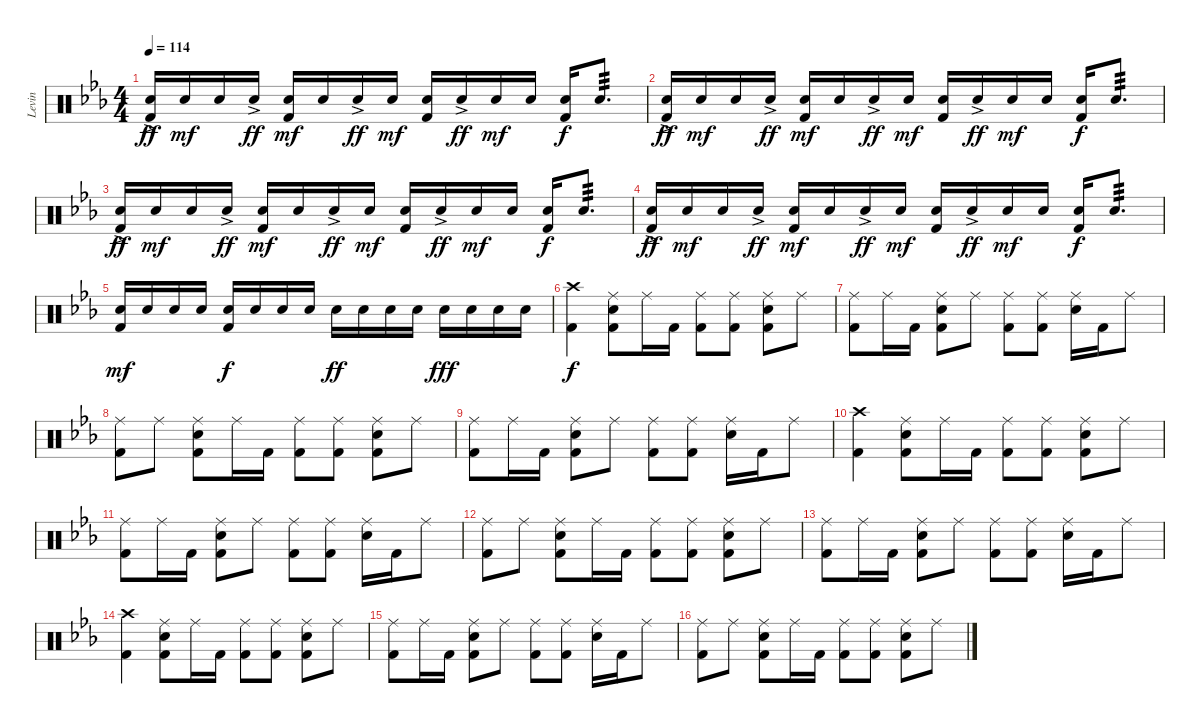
\track ("Levin" "Levin") {instrument percussion}
\staff {score}
\articulation defaults
\ts (4 4)
\tempo 114
\clef neutral
\ks eb
("Electric Snare (hit)"{ac} "Kick (hit) 2").16{dy ff} "Electric Snare (hit)".16{dy mf} "Electric Snare (hit)".16 "Electric Snare (hit)"{ac}.16{dy ff} ("Electric Snare (hit)" "Kick (hit) 2").16{dy mf} "Electric Snare (hit)".16 "Electric Snare (hit)"{ac}.16{dy ff} "Electric Snare (hit)".16{dy mf} ("Electric Snare (hit)" "Kick (hit) 2").16 "Electric Snare (hit)"{ac}.16{dy ff} "Electric Snare (hit)".16{dy mf} "Electric Snare (hit)".16 ("Electric Snare (hit)" "Kick (hit) 2").16{dy f} "Electric Snare (hit)".8{d tp 3} |
("Electric Snare (hit)"{ac} "Kick (hit) 2").16{dy ff} "Electric Snare (hit)".16{dy mf} "Electric Snare (hit)".16 "Electric Snare (hit)"{ac}.16{dy ff} ("Electric Snare (hit)" "Kick (hit) 2").16{dy mf} "Electric Snare (hit)".16 "Electric Snare (hit)"{ac}.16{dy ff} "Electric Snare (hit)".16{dy mf} ("Electric Snare (hit)" "Kick (hit) 2").16 "Electric Snare (hit)"{ac}.16{dy ff} "Electric Snare (hit)".16{dy mf} "Electric Snare (hit)".16 ("Electric Snare (hit)" "Kick (hit) 2").16{dy f} "Electric Snare (hit)".8{d tp 3} |
("Electric Snare (hit)"{ac} "Kick (hit) 2").16{dy ff} "Electric Snare (hit)".16{dy mf} "Electric Snare (hit)".16 "Electric Snare (hit)"{ac}.16{dy ff} ("Electric Snare (hit)" "Kick (hit) 2").16{dy mf} "Electric Snare (hit)".16 "Electric Snare (hit)"{ac}.16{dy ff} "Electric Snare (hit)".16{dy mf} ("Electric Snare (hit)" "Kick (hit) 2").16 "Electric Snare (hit)"{ac}.16{dy ff} "Electric Snare (hit)".16{dy mf} "Electric Snare (hit)".16 ("Electric Snare (hit)" "Kick (hit) 2").16{dy f} "Electric Snare (hit)".8{d tp 3} |
("Electric Snare (hit)"{ac} "Kick (hit) 2").16{dy ff} "Electric Snare (hit)".16{dy mf} "Electric Snare (hit)".16 "Electric Snare (hit)"{ac}.16{dy ff} ("Electric Snare (hit)" "Kick (hit) 2").16{dy mf} "Electric Snare (hit)".16 "Electric Snare (hit)"{ac}.16{dy ff} "Electric Snare (hit)".16{dy mf} ("Electric Snare (hit)" "Kick (hit) 2").16 "Electric Snare (hit)"{ac}.16{dy ff} "Electric Snare (hit)".16{dy mf} "Electric Snare (hit)".16 ("Electric Snare (hit)" "Kick (hit) 2").16{dy f} "Electric Snare (hit)".8{d tp 3} |
("Electric Snare (hit)" "Kick (hit) 2").16{dy mf} "Electric Snare (hit)".16 "Electric Snare (hit)".16 "Electric Snare (hit)".16 ("Electric Snare (hit)" "Kick (hit) 2").16{dy f} "Electric Snare (hit)".16 "Electric Snare (hit)".16 "Electric Snare (hit)".16 "Electric Snare (hit)".16{dy ff} "Electric Snare (hit)".16 "Electric Snare (hit)".16 "Electric Snare (hit)".16 "Electric Snare (hit)".16{dy fff} "Electric Snare (hit)".16 "Electric Snare (hit)".16 "Electric Snare (hit)".16 |
("Crash high (hit)" "Kick (hit) 2").4{dy f} ("Ride (middle)" "Electric Snare (hit)" "Kick (hit) 2").8 "Ride (middle)".16 "Kick (hit) 2".16 ("Ride (middle)" "Kick (hit) 2").8 ("Ride (middle)" "Kick (hit) 2").8 ("Ride (middle)" "Electric Snare (hit)" "Kick (hit) 2").8 "Ride (middle)".8 |
("Ride (middle)" "Kick (hit) 2").8 "Ride (middle)".16 "Kick (hit) 2".16 ("Ride (middle)" "Electric Snare (hit)" "Kick (hit) 2").8 "Ride (middle)".8 ("Ride (middle)" "Kick (hit) 2").8 ("Ride (middle)" "Kick (hit) 2").8 ("Ride (middle)" "Electric Snare (hit)").16 "Kick (hit) 2".16 "Ride (middle)".8 |
("Ride (middle)" "Kick (hit) 2").8 "Ride (middle)".8 ("Ride (middle)" "Electric Snare (hit)" "Kick (hit) 2").8 "Ride (middle)".16 "Kick (hit) 2".16 ("Ride (middle)" "Kick (hit) 2").8 ("Ride (middle)" "Kick (hit) 2").8 ("Ride (middle)" "Electric Snare (hit)" "Kick (hit) 2").8 "Ride (middle)".8 |
("Ride (middle)" "Kick (hit) 2").8 "Ride (middle)".16 "Kick (hit) 2".16 ("Ride (middle)" "Electric Snare (hit)" "Kick (hit) 2").8 "Ride (middle)".8 ("Ride (middle)" "Kick (hit) 2").8 ("Ride (middle)" "Kick (hit) 2").8 ("Ride (middle)" "Electric Snare (hit)").16 "Kick (hit) 2".16 "Ride (middle)".8 |
("Crash high (hit)" "Kick (hit) 2").4 ("Ride (middle)" "Electric Snare (hit)" "Kick (hit) 2").8 "Ride (middle)".16 "Kick (hit) 2".16 ("Ride (middle)" "Kick (hit) 2").8 ("Ride (middle)" "Kick (hit) 2").8 ("Ride (middle)" "Electric Snare (hit)" "Kick (hit) 2").8 "Ride (middle)".8 |
("Ride (middle)" "Kick (hit) 2").8 "Ride (middle)".16 "Kick (hit) 2".16 ("Ride (middle)" "Electric Snare (hit)" "Kick (hit) 2").8 "Ride (middle)".8 ("Ride (middle)" "Kick (hit) 2").8 ("Ride (middle)" "Kick (hit) 2").8 ("Ride (middle)" "Electric Snare (hit)").16 "Kick (hit) 2".16 "Ride (middle)".8 |
("Ride (middle)" "Kick (hit) 2").8 "Ride (middle)".8 ("Ride (middle)" "Electric Snare (hit)" "Kick (hit) 2").8 "Ride (middle)".16 "Kick (hit) 2".16 ("Ride (middle)" "Kick (hit) 2").8 ("Ride (middle)" "Kick (hit) 2").8 ("Ride (middle)" "Electric Snare (hit)" "Kick (hit) 2").8 "Ride (middle)".8 |
("Ride (middle)" "Kick (hit) 2").8 "Ride (middle)".16 "Kick (hit) 2".16 ("Ride (middle)" "Electric Snare (hit)" "Kick (hit) 2").8 "Ride (middle)".8 ("Ride (middle)" "Kick (hit) 2").8 ("Ride (middle)" "Kick (hit) 2").8 ("Ride (middle)" "Electric Snare (hit)").16 "Kick (hit) 2".16 "Ride (middle)".8 |
("Crash high (hit)" "Kick (hit) 2").4 ("Ride (middle)" "Electric Snare (hit)" "Kick (hit) 2").8 "Ride (middle)".16 "Kick (hit) 2".16 ("Ride (middle)" "Kick (hit) 2").8 ("Ride (middle)" "Kick (hit) 2").8 ("Ride (middle)" "Electric Snare (hit)" "Kick (hit) 2").8 "Ride (middle)".8 |
("Ride (middle)" "Kick (hit) 2").8 "Ride (middle)".16 "Kick (hit) 2".16 ("Ride (middle)" "Electric Snare (hit)" "Kick (hit) 2").8 "Ride (middle)".8 ("Ride (middle)" "Kick (hit) 2").8 ("Ride (middle)" "Kick (hit) 2").8 ("Ride (middle)" "Electric Snare (hit)").16 "Kick (hit) 2".16 "Ride (middle)".8 |
("Ride (middle)" "Kick (hit) 2").8 "Ride (middle)".8 ("Ride (middle)" "Electric Snare (hit)" "Kick (hit) 2").8 "Ride (middle)".16 "Kick (hit) 2".16 ("Ride (middle)" "Kick (hit) 2").8 ("Ride (middle)" "Kick (hit) 2").8 ("Ride (middle)" "Electric Snare (hit)" "Kick (hit) 2").8 "Ride (middle)".8
